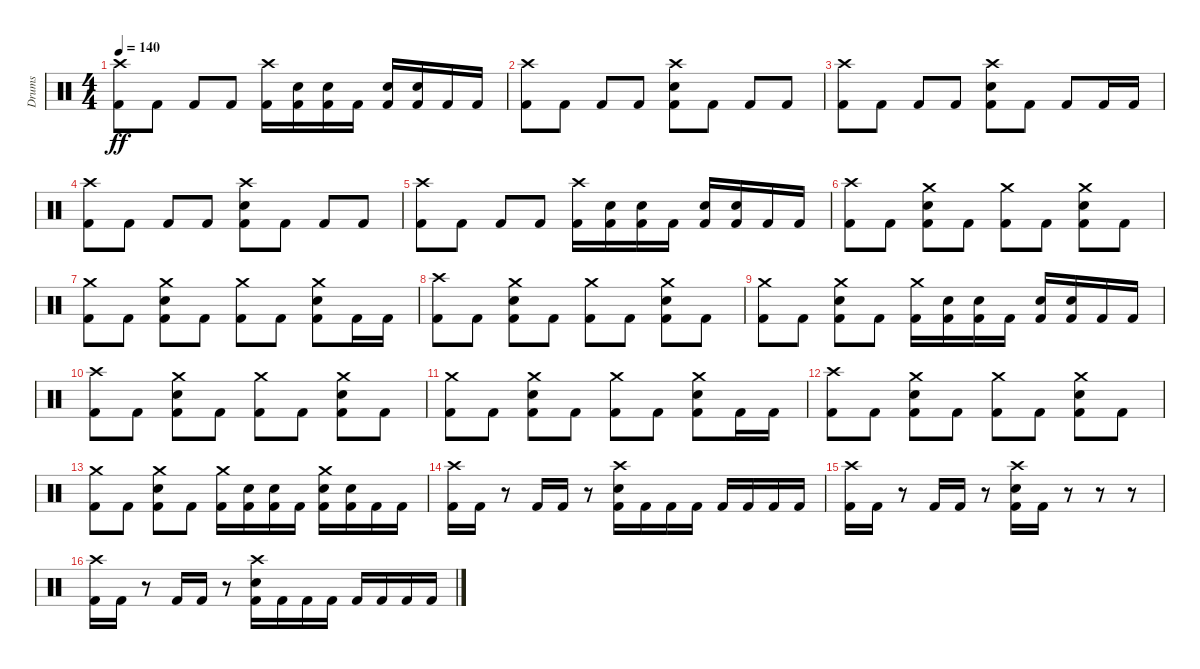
\track ("Drums" "Drums") {instrument percussion}
\staff {score}
\articulation defaults
\ts (4 4)
\tempo 140
\clef neutral
\ks c
("Crash high (hit)" "Kick (hit) 2").8{dy ff} "Kick (hit) 2".8 "Kick (hit) 2".8 "Kick (hit) 2".8 ("Crash high (hit)" "Kick (hit) 2").16 ("Snare (hit) 2" "Kick (hit) 2").16 ("Snare (hit) 2" "Kick (hit) 2").16 "Kick (hit) 2".16 ("Snare (hit) 2" "Kick (hit) 2").16 ("Snare (hit) 2" "Kick (hit) 2").16 "Kick (hit) 2".16 "Kick (hit) 2".16 |
("Crash high (hit)" "Kick (hit) 2").8 "Kick (hit) 2".8 "Kick (hit) 2".8 "Kick (hit) 2".8 ("Crash high (hit)" "Snare (hit) 2" "Kick (hit) 2").8 "Kick (hit) 2".8 "Kick (hit) 2".8 "Kick (hit) 2".8 |
("Crash high (hit)" "Kick (hit) 2").8 "Kick (hit) 2".8 "Kick (hit) 2".8 "Kick (hit) 2".8 ("Crash high (hit)" "Snare (hit) 2" "Kick (hit) 2").8 "Kick (hit) 2".8 "Kick (hit) 2".8 "Kick (hit) 2".16 "Kick (hit) 2".16 |
("Crash high (hit)" "Kick (hit) 2").8 "Kick (hit) 2".8 "Kick (hit) 2".8 "Kick (hit) 2".8 ("Crash high (hit)" "Snare (hit) 2" "Kick (hit) 2").8 "Kick (hit) 2".8 "Kick (hit) 2".8 "Kick (hit) 2".8 |
("Crash high (hit)" "Kick (hit) 2").8 "Kick (hit) 2".8 "Kick (hit) 2".8 "Kick (hit) 2".8 ("Crash high (hit)" "Kick (hit) 2").16 ("Snare (hit) 2" "Kick (hit) 2").16 ("Snare (hit) 2" "Kick (hit) 2").16 "Kick (hit) 2".16 ("Snare (hit) 2" "Kick (hit) 2").16 ("Snare (hit) 2" "Kick (hit) 2").16 "Kick (hit) 2".16 "Kick (hit) 2".16 |
("Crash high (hit)" "Kick (hit) 2").8 "Kick (hit) 2".8 ("Crash medium (hit)" "Snare (hit) 2" "Kick (hit) 2").8 "Kick (hit) 2".8 ("Crash medium (hit)" "Kick (hit) 2").8 "Kick (hit) 2".8 ("Crash medium (hit)" "Snare (hit) 2" "Kick (hit) 2").8 "Kick (hit) 2".8 |
("Crash medium (hit)" "Kick (hit) 2").8 "Kick (hit) 2".8 ("Crash medium (hit)" "Snare (hit) 2" "Kick (hit) 2").8 "Kick (hit) 2".8 ("Crash medium (hit)" "Kick (hit) 2").8 "Kick (hit) 2".8 ("Crash medium (hit)" "Snare (hit) 2" "Kick (hit) 2").8 "Kick (hit) 2".16 "Kick (hit) 2".16 |
("Crash high (hit)" "Kick (hit) 2").8 "Kick (hit) 2".8 ("Crash medium (hit)" "Snare (hit) 2" "Kick (hit) 2").8 "Kick (hit) 2".8 ("Crash medium (hit)" "Kick (hit) 2").8 "Kick (hit) 2".8 ("Crash medium (hit)" "Snare (hit) 2" "Kick (hit) 2").8 "Kick (hit) 2".8 |
("Crash medium (hit)" "Kick (hit) 2").8 "Kick (hit) 2".8 ("Crash medium (hit)" "Snare (hit) 2" "Kick (hit) 2").8 "Kick (hit) 2".8 ("Crash medium (hit)" "Kick (hit) 2").16 ("Snare (hit) 2" "Kick (hit) 2").16 ("Snare (hit) 2" "Kick (hit) 2").16 "Kick (hit) 2".16 ("Snare (hit) 2" "Kick (hit) 2").16 ("Snare (hit) 2" "Kick (hit) 2").16 "Kick (hit) 2".16 "Kick (hit) 2".16 |
("Crash high (hit)" "Kick (hit) 2").8 "Kick (hit) 2".8 ("Crash medium (hit)" "Snare (hit) 2" "Kick (hit) 2").8 "Kick (hit) 2".8 ("Crash medium (hit)" "Kick (hit) 2").8 "Kick (hit) 2".8 ("Crash medium (hit)" "Snare (hit) 2" "Kick (hit) 2").8 "Kick (hit) 2".8 |
("Crash medium (hit)" "Kick (hit) 2").8 "Kick (hit) 2".8 ("Crash medium (hit)" "Snare (hit) 2" "Kick (hit) 2").8 "Kick (hit) 2".8 ("Crash medium (hit)" "Kick (hit) 2").8 "Kick (hit) 2".8 ("Crash medium (hit)" "Snare (hit) 2" "Kick (hit) 2").8 "Kick (hit) 2".16 "Kick (hit) 2".16 |
("Crash high (hit)" "Kick (hit) 2").8 "Kick (hit) 2".8 ("Crash medium (hit)" "Snare (hit) 2" "Kick (hit) 2").8 "Kick (hit) 2".8 ("Crash medium (hit)" "Kick (hit) 2").8 "Kick (hit) 2".8 ("Crash medium (hit)" "Snare (hit) 2" "Kick (hit) 2").8 "Kick (hit) 2".8 |
("Crash medium (hit)" "Kick (hit) 2").8 "Kick (hit) 2".8 ("Crash medium (hit)" "Snare (hit) 2" "Kick (hit) 2").8 "Kick (hit) 2".8 ("Crash medium (hit)" "Kick (hit) 2").16 ("Snare (hit) 2" "Kick (hit) 2").16 ("Snare (hit) 2" "Kick (hit) 2").16 "Kick (hit) 2".16 ("Crash medium (hit)" "Snare (hit) 2" "Kick (hit) 2").16 ("Snare (hit) 2" "Kick (hit) 2").16 "Kick (hit) 2".16 "Kick (hit) 2".16 |
("Crash high (hit)" "Kick (hit) 2").16 "Kick (hit) 2".16 r.8 "Kick (hit) 2".16 "Kick (hit) 2".16 r.8 ("Crash high (hit)" "Snare (hit) 2" "Kick (hit) 2").16 "Kick (hit) 2".16 "Kick (hit) 2".16 "Kick (hit) 2".16 "Kick (hit) 2".16 "Kick (hit) 2".16 "Kick (hit) 2".16 "Kick (hit) 2".16 |
("Crash high (hit)" "Kick (hit) 2").16 "Kick (hit) 2".16 r.8 "Kick (hit) 2".16 "Kick (hit) 2".16 r.8 ("Crash high (hit)" "Snare (hit) 2" "Kick (hit) 2").16 "Kick (hit) 2".16 r.8 r.8 r.8 |
("Crash high (hit)" "Kick (hit) 2").16 "Kick (hit) 2".16 r.8 "Kick (hit) 2".16 "Kick (hit) 2".16 r.8 ("Crash high (hit)" "Snare (hit) 2" "Kick (hit) 2").16 "Kick (hit) 2".16 "Kick (hit) 2".16 "Kick (hit) 2".16 "Kick (hit) 2".16 "Kick (hit) 2".16 "Kick (hit) 2".16 "Kick (hit) 2".16
